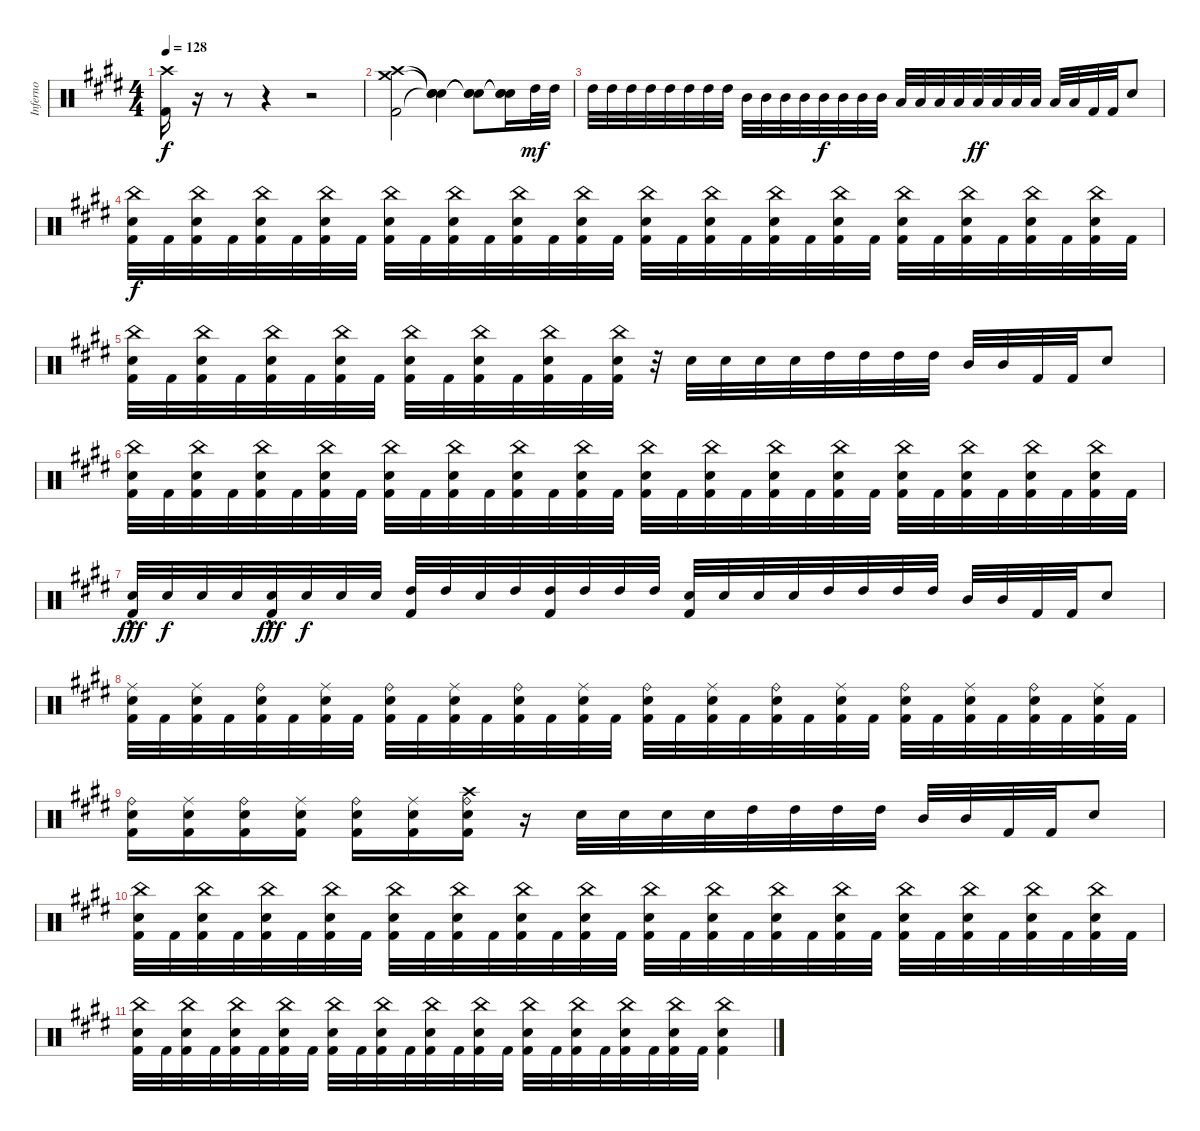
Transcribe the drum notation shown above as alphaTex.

\track ("Inferno" "Inferno") {instrument percussion}
\staff
\articulation defaults
\ts (4 4)
\tempo 128
\clef neutral
\ks c#minor
("Crash high (hit)" "Kick (hit) 2").16{dy f} r.16 r.8 r.4 r.2 |
("Crash high (hit)" "Crash medium (hit)" "Kick (hit) 2").2 ("Snare (hit)"{t} "Snare (hit)"{t} "Snare (hit)"{t}).4 ("Snare (hit)"{t} "Snare (hit)"{t} "Snare (hit)"{t}).8 ("Snare (hit)"{t} "Snare (hit)"{t} "Snare (hit)"{t}).16 "High Tom (hit)".32{dy mf} "High Tom (hit)".32 |
"High Tom (hit)".32 "High Tom (hit)".32 "High Tom (hit)".32 "High Tom (hit)".32 "High Tom (hit)".32 "High Tom (hit)".32 "High Tom (hit)".32 "High Tom (hit)".32 "Mid Tom (hit)".32 "Mid Tom (hit)".32 "Mid Tom (hit)".32 "Mid Tom (hit)".32 "Mid Tom (hit)".32{dy f} "Mid Tom (hit)".32 "Mid Tom (hit)".32 "Mid Tom (hit)".32 "Low Tom (hit)".32 "Low Tom (hit)".32 "Low Tom (hit)".32 "Low Tom (hit)".32 "Low Tom (hit)".32{dy ff} "Low Tom (hit)".32 "Low Tom (hit)".32 "Low Tom (hit)".32 "Low Floor Tom (hit)".32 "Low Tom (hit)".32 "Kick (hit) 2".32 "Kick (hit) 2".32 "Snare (hit) 2".8 |
("China (hit)" "Snare (hit) 2" "Kick (hit) 2").32{dy f} "Kick (hit) 2".32 ("China (hit)" "Snare (hit) 2" "Kick (hit) 2").32 "Kick (hit) 2".32 ("China (hit)" "Snare (hit) 2" "Kick (hit) 2").32 "Kick (hit) 2".32 ("China (hit)" "Snare (hit) 2" "Kick (hit) 2").32 "Kick (hit) 2".32 ("China (hit)" "Snare (hit) 2" "Kick (hit) 2").32 "Kick (hit) 2".32 ("China (hit)" "Snare (hit) 2" "Kick (hit) 2").32 "Kick (hit) 2".32 ("China (hit)" "Snare (hit) 2" "Kick (hit) 2").32 "Kick (hit) 2".32 ("China (hit)" "Snare (hit) 2" "Kick (hit) 2").32 "Kick (hit) 2".32 ("China (hit)" "Snare (hit) 2" "Kick (hit) 2").32 "Kick (hit) 2".32 ("China (hit)" "Snare (hit) 2" "Kick (hit) 2").32 "Kick (hit) 2".32 ("China (hit)" "Snare (hit) 2" "Kick (hit) 2").32 "Kick (hit) 2".32 ("China (hit)" "Snare (hit) 2" "Kick (hit) 2").32 "Kick (hit) 2".32 ("China (hit)" "Snare (hit) 2" "Kick (hit) 2").32 "Kick (hit) 2".32 ("China (hit)" "Snare (hit) 2" "Kick (hit) 2").32 "Kick (hit) 2".32 ("China (hit)" "Snare (hit) 2" "Kick (hit) 2").32 "Kick (hit) 2".32 ("China (hit)" "Snare (hit) 2" "Kick (hit) 2").32 "Kick (hit) 2".32 |
("China (hit)" "Snare (hit) 2" "Kick (hit) 2").32 "Kick (hit) 2".32 ("China (hit)" "Snare (hit) 2" "Kick (hit) 2").32 "Kick (hit) 2".32 ("China (hit)" "Snare (hit) 2" "Kick (hit) 2").32 "Kick (hit) 2".32 ("China (hit)" "Snare (hit) 2" "Kick (hit) 2").32 "Kick (hit) 2".32 ("China (hit)" "Snare (hit) 2" "Kick (hit) 2").32 "Kick (hit) 2".32 ("China (hit)" "Snare (hit) 2" "Kick (hit) 2").32 "Kick (hit) 2".32 ("China (hit)" "Snare (hit) 2" "Kick (hit) 2").32 "Kick (hit) 2".32 ("China (hit)" "Snare (hit) 2" "Kick (hit) 2").32 r.32 "Snare (hit) 2".32 "Snare (hit) 2".32 "Snare (hit) 2".32 "Snare (hit) 2".32 "High Tom (hit)".32 "High Tom (hit)".32 "High Tom (hit)".32 "High Tom (hit)".32 "Mid Tom (hit)".32 "Mid Tom (hit)".32 "Kick (hit) 2".32 "Kick (hit) 2".32 "Snare (hit) 2".8 |
("China (hit)" "Snare (hit) 2" "Kick (hit) 2").32 "Kick (hit) 2".32 ("China (hit)" "Snare (hit) 2" "Kick (hit) 2").32 "Kick (hit) 2".32 ("China (hit)" "Snare (hit) 2" "Kick (hit) 2").32 "Kick (hit) 2".32 ("China (hit)" "Snare (hit) 2" "Kick (hit) 2").32 "Kick (hit) 2".32 ("China (hit)" "Snare (hit) 2" "Kick (hit) 2").32 "Kick (hit) 2".32 ("China (hit)" "Snare (hit) 2" "Kick (hit) 2").32 "Kick (hit) 2".32 ("China (hit)" "Snare (hit) 2" "Kick (hit) 2").32 "Kick (hit) 2".32 ("China (hit)" "Snare (hit) 2" "Kick (hit) 2").32 "Kick (hit) 2".32 ("China (hit)" "Snare (hit) 2" "Kick (hit) 2").32 "Kick (hit) 2".32 ("China (hit)" "Snare (hit) 2" "Kick (hit) 2").32 "Kick (hit) 2".32 ("China (hit)" "Snare (hit) 2" "Kick (hit) 2").32 "Kick (hit) 2".32 ("China (hit)" "Snare (hit) 2" "Kick (hit) 2").32 "Kick (hit) 2".32 ("China (hit)" "Snare (hit) 2" "Kick (hit) 2").32 "Kick (hit) 2".32 ("China (hit)" "Snare (hit) 2" "Kick (hit) 2").32 "Kick (hit) 2".32 ("China (hit)" "Snare (hit) 2" "Kick (hit) 2").32 "Kick (hit) 2".32 ("China (hit)" "Snare (hit) 2" "Kick (hit) 2").32 "Kick (hit) 2".32 |
("Snare (hit) 2"{hac} "Kick (hit) 2").32{dy fff} "Snare (hit) 2".32{dy f} "Snare (hit) 2".32 "Snare (hit) 2".32 ("Snare (hit) 2"{hac} "Kick (hit) 2").32{dy fff} "Snare (hit) 2".32{dy f} "Snare (hit) 2".32 "Snare (hit) 2".32 ("High Tom (hit)" "Kick (hit) 2").32 "High Tom (hit)".32 "Snare (hit) 2".32 "High Tom (hit)".32 ("High Tom (hit)" "Kick (hit) 2").32 "High Tom (hit)".32 "High Tom (hit)".32 "High Tom (hit)".32 ("Snare (hit) 2" "Kick (hit) 2").32 "Snare (hit) 2".32 "Snare (hit) 2".32 "Snare (hit) 2".32 "High Tom (hit)".32 "High Tom (hit)".32 "High Tom (hit)".32 "High Tom (hit)".32 "Mid Tom (hit)".32 "Mid Tom (hit)".32 "Kick (hit) 2".32 "Kick (hit) 2".32 "Snare (hit) 2".8 |
("Ride (middle)" "Snare (hit) 2" "Kick (hit) 2").32 "Kick (hit) 2".32 ("Ride (middle)" "Snare (hit) 2" "Kick (hit) 2").32 "Kick (hit) 2".32 ("Ride (bell)" "Snare (hit) 2" "Kick (hit) 2").32 "Kick (hit) 2".32 ("Ride (middle)" "Snare (hit) 2" "Kick (hit) 2").32 "Kick (hit) 2".32 ("Ride (bell)" "Snare (hit) 2" "Kick (hit) 2").32 "Kick (hit) 2".32 ("Ride (middle)" "Snare (hit) 2" "Kick (hit) 2").32 "Kick (hit) 2".32 ("Ride (bell)" "Snare (hit) 2" "Kick (hit) 2").32 "Kick (hit) 2".32 ("Ride (middle)" "Snare (hit) 2" "Kick (hit) 2").32 "Kick (hit) 2".32 ("Ride (bell)" "Snare (hit) 2" "Kick (hit) 2").32 "Kick (hit) 2".32 ("Ride (middle)" "Snare (hit) 2" "Kick (hit) 2").32 "Kick (hit) 2".32 ("Ride (bell)" "Snare (hit) 2" "Kick (hit) 2").32 "Kick (hit) 2".32 ("Ride (middle)" "Snare (hit) 2" "Kick (hit) 2").32 "Kick (hit) 2".32 ("Ride (bell)" "Snare (hit) 2" "Kick (hit) 2").32 "Kick (hit) 2".32 ("Ride (middle)" "Snare (hit) 2" "Kick (hit) 2").32 "Kick (hit) 2".32 ("Ride (bell)" "Snare (hit) 2" "Kick (hit) 2").32 "Kick (hit) 2".32 ("Ride (middle)" "Snare (hit) 2" "Kick (hit) 2").32 "Kick (hit) 2".32 |
("Ride (bell)" "Snare (hit) 2" "Kick (hit) 2").16 ("Ride (middle)" "Snare (hit) 2" "Kick (hit) 2").16 ("Ride (bell)" "Snare (hit) 2" "Kick (hit) 2").16 ("Ride (middle)" "Snare (hit) 2" "Kick (hit) 2").16 ("Ride (bell)" "Snare (hit) 2" "Kick (hit) 2").16 ("Ride (middle)" "Snare (hit) 2" "Kick (hit) 2").16 ("Crash high (hit)" "Ride (bell)" "Snare (hit) 2" "Kick (hit) 2").16 r.16 "Snare (hit) 2".32 "Snare (hit) 2".32 "Snare (hit) 2".32 "Snare (hit) 2".32 "High Tom (hit)".32 "High Tom (hit)".32 "High Tom (hit)".32 "High Tom (hit)".32 "Mid Tom (hit)".32 "Mid Tom (hit)".32 "Kick (hit) 2".32 "Kick (hit) 2".32 "Snare (hit) 2".8 |
("China (hit)" "Snare (hit) 2" "Kick (hit) 2").32 "Kick (hit) 2".32 ("China (hit)" "Snare (hit) 2" "Kick (hit) 2").32 "Kick (hit) 2".32 ("China (hit)" "Snare (hit) 2" "Kick (hit) 2").32 "Kick (hit) 2".32 ("China (hit)" "Snare (hit) 2" "Kick (hit) 2").32 "Kick (hit) 2".32 ("China (hit)" "Snare (hit) 2" "Kick (hit) 2").32 "Kick (hit) 2".32 ("China (hit)" "Snare (hit) 2" "Kick (hit) 2").32 "Kick (hit) 2".32 ("China (hit)" "Snare (hit) 2" "Kick (hit) 2").32 "Kick (hit) 2".32 ("China (hit)" "Snare (hit) 2" "Kick (hit) 2").32 "Kick (hit) 2".32 ("China (hit)" "Snare (hit) 2" "Kick (hit) 2").32 "Kick (hit) 2".32 ("China (hit)" "Snare (hit) 2" "Kick (hit) 2").32 "Kick (hit) 2".32 ("China (hit)" "Snare (hit) 2" "Kick (hit) 2").32 "Kick (hit) 2".32 ("China (hit)" "Snare (hit) 2" "Kick (hit) 2").32 "Kick (hit) 2".32 ("China (hit)" "Snare (hit) 2" "Kick (hit) 2").32 "Kick (hit) 2".32 ("China (hit)" "Snare (hit) 2" "Kick (hit) 2").32 "Kick (hit) 2".32 ("China (hit)" "Snare (hit) 2" "Kick (hit) 2").32 "Kick (hit) 2".32 ("China (hit)" "Snare (hit) 2" "Kick (hit) 2").32 "Kick (hit) 2".32 |
("China (hit)" "Snare (hit) 2" "Kick (hit) 2").32 "Kick (hit) 2".32 ("China (hit)" "Snare (hit) 2" "Kick (hit) 2").32 "Kick (hit) 2".32 ("China (hit)" "Snare (hit) 2" "Kick (hit) 2").32 "Kick (hit) 2".32 ("China (hit)" "Snare (hit) 2" "Kick (hit) 2").32 "Kick (hit) 2".32 ("China (hit)" "Snare (hit) 2" "Kick (hit) 2").32 "Kick (hit) 2".32 ("China (hit)" "Snare (hit) 2" "Kick (hit) 2").32 "Kick (hit) 2".32 ("China (hit)" "Snare (hit) 2" "Kick (hit) 2").32 "Kick (hit) 2".32 ("China (hit)" "Snare (hit) 2" "Kick (hit) 2").32 "Kick (hit) 2".32 ("China (hit)" "Snare (hit) 2" "Kick (hit) 2").32 "Kick (hit) 2".32 ("China (hit)" "Snare (hit) 2" "Kick (hit) 2").32 "Kick (hit) 2".32 ("China (hit)" "Snare (hit) 2" "Kick (hit) 2").32 "Kick (hit) 2".32 ("China (hit)" "Snare (hit) 2" "Kick (hit) 2").32 "Kick (hit) 2".32 ("China (hit)" "Snare (hit) 2" "Kick (hit) 2").4
